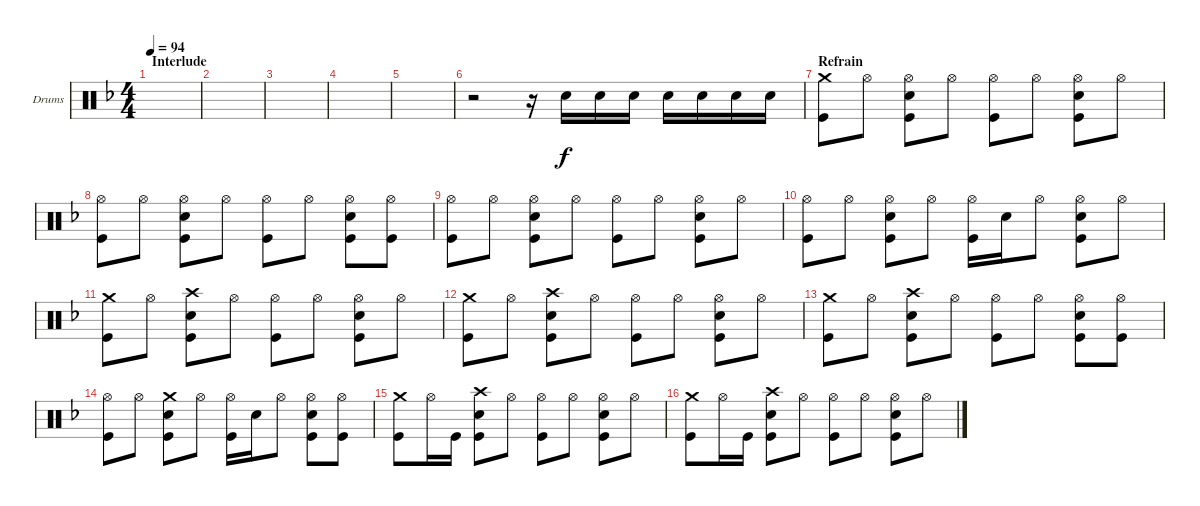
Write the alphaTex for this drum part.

\defaultSystemsLayout 4
\bracketExtendMode groupsimilarinstruments
\firstSystemTrackNameOrientation horizontal
\otherSystemsTrackNameOrientation horizontal
\track ("Drumkit" "Drums") {instrument percussion}
\staff {score}
\articulation defaults
\ts (4 4)
\section ("" "Interlude")
\tempo 94
\clef neutral
\ks dminor
|
|
|
|
|
r.2 r.16 "Snare (hit) 2".16 "Snare (hit) 2".16 "Snare (hit) 2".16 "Snare (hit) 2".16 "Snare (hit) 2".16 "Snare (hit) 2".16 "Snare (hit) 2".16 |
\section ("" "Refrain")
("Kick (hit)" "Crash medium (hit)").8 "Hi-Hat (open)".8 ("Snare (hit) 2" "Kick (hit)" "Hi-Hat (open)").8 "Hi-Hat (open)".8 ("Hi-Hat (open)" "Kick (hit)").8 "Hi-Hat (open)".8 ("Hi-Hat (open)" "Kick (hit)" "Snare (hit) 2").8 "Hi-Hat (open)".8 |
("Kick (hit)" "Hi-Hat (open)").8 "Hi-Hat (open)".8 ("Snare (hit) 2" "Kick (hit)" "Hi-Hat (open)").8 "Hi-Hat (open)".8 ("Hi-Hat (open)" "Kick (hit)").8 "Hi-Hat (open)".8 ("Hi-Hat (open)" "Kick (hit)" "Snare (hit) 2").8 ("Hi-Hat (open)" "Kick (hit)").8 |
("Kick (hit)" "Hi-Hat (open)").8 "Hi-Hat (open)".8 ("Snare (hit) 2" "Kick (hit)" "Hi-Hat (open)").8 "Hi-Hat (open)".8 ("Hi-Hat (open)" "Kick (hit)").8 "Hi-Hat (open)".8 ("Hi-Hat (open)" "Kick (hit)" "Snare (hit) 2").8 "Hi-Hat (open)".8 |
("Kick (hit)" "Hi-Hat (open)").8 "Hi-Hat (open)".8 ("Snare (hit) 2" "Kick (hit)" "Hi-Hat (open)").8 "Hi-Hat (open)".8 ("Hi-Hat (open)" "Kick (hit)").16 "Snare (hit) 2".16 "Hi-Hat (open)".8 ("Hi-Hat (open)" "Kick (hit)" "Snare (hit) 2").8 "Hi-Hat (open)".8 |
("Kick (hit)" "Crash medium (hit)").8 "Hi-Hat (open)".8 ("Crash high (hit)" "Snare (hit) 2" "Kick (hit)").8 "Hi-Hat (open)".8 ("Hi-Hat (open)" "Kick (hit)").8 "Hi-Hat (open)".8 ("Hi-Hat (open)" "Kick (hit)" "Snare (hit) 2").8 "Hi-Hat (open)".8 |
("Kick (hit)" "Crash medium (hit)").8 "Hi-Hat (open)".8 ("Crash high (hit)" "Snare (hit) 2" "Kick (hit)").8 "Hi-Hat (open)".8 ("Hi-Hat (open)" "Kick (hit)").8 "Hi-Hat (open)".8 ("Hi-Hat (open)" "Kick (hit)" "Snare (hit) 2").8 "Hi-Hat (open)".8 |
("Kick (hit)" "Crash medium (hit)").8 "Hi-Hat (open)".8 ("Crash high (hit)" "Snare (hit) 2" "Kick (hit)").8 "Hi-Hat (open)".8 ("Hi-Hat (open)" "Kick (hit)").8 "Hi-Hat (open)".8 ("Hi-Hat (open)" "Kick (hit)" "Snare (hit) 2").8 ("Hi-Hat (open)" "Kick (hit)").8 |
("Kick (hit)" "Hi-Hat (open)").8 "Hi-Hat (open)".8 ("Snare (hit) 2" "Kick (hit)" "Crash medium (hit)").8 "Hi-Hat (open)".8 ("Hi-Hat (open)" "Kick (hit)").16 "Snare (hit) 2".16 "Hi-Hat (open)".8 ("Hi-Hat (open)" "Kick (hit)" "Snare (hit) 2").8 ("Hi-Hat (open)" "Kick (hit)").8 |
("Kick (hit)" "Crash medium (hit)").8 "Hi-Hat (open)".16 "Kick (hit)".16 ("Crash high (hit)" "Snare (hit) 2" "Kick (hit)").8 "Hi-Hat (open)".8 ("Hi-Hat (open)" "Kick (hit)").8 "Hi-Hat (open)".8 ("Hi-Hat (open)" "Kick (hit)" "Snare (hit) 2").8 "Hi-Hat (open)".8 |
("Kick (hit)" "Crash medium (hit)").8 "Hi-Hat (open)".16 "Kick (hit)".16 ("Crash high (hit)" "Snare (hit) 2" "Kick (hit)").8 "Hi-Hat (open)".8 ("Hi-Hat (open)" "Kick (hit)").8 "Hi-Hat (open)".8 ("Hi-Hat (open)" "Kick (hit)" "Snare (hit) 2").8 "Hi-Hat (open)".8
